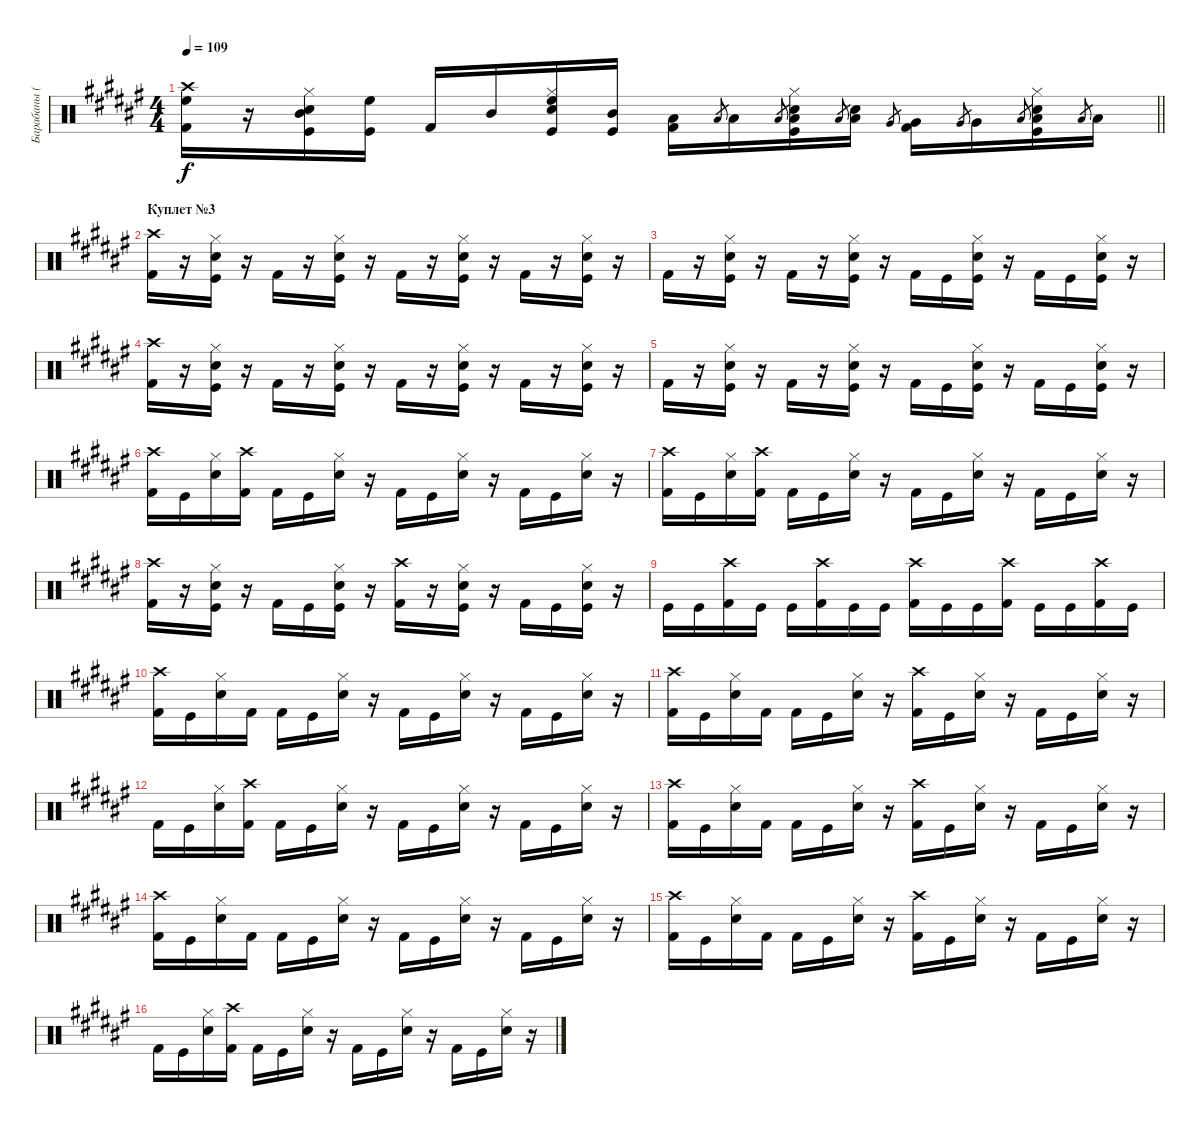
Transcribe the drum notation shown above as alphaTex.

\track ("Барабаны (Н.Лысов)" "Барабаны (") {instrument percussion}
\staff {score}
\articulation defaults
\ts (4 4)
\tempo 109
\clef neutral
\barLineRight lightlight
\ks f#
("Crash high (hit)" "High Floor Tom (hit)" "Kick (hit) 2").16{dy f} r.16 ("Hi-Hat (closed)" "Snare (hit) 2" "Mid Tom (hit)" "Kick (hit)").16 ("High Floor Tom (hit)" "Kick (hit)").16 "Kick (hit) 2".16 "Mid Tom (hit)".16 ("Hi-Hat (closed)" "Snare (hit) 2" "High Floor Tom (hit)" "Kick (hit)").16 ("Mid Tom (hit)" "Kick (hit)").16 ("Low Tom (hit)" "Kick (hit) 2").16 "Low Tom (hit)".8{gr} "Low Tom (hit)".16 "Low Tom (hit)".8{gr} ("Hi-Hat (closed)" "Snare (hit) 2" "Low Tom (hit)" "Kick (hit)").16 "Low Tom (hit)".8{gr} ("Snare (hit) 2" "Low Tom (hit)").16 "Very Low Tom (hit)".8{gr} ("Very Low Tom (hit)" "Kick (hit) 2").16 "Very Low Tom (hit)".8{gr} "Very Low Tom (hit)".16 "Low Floor Tom (hit)".8{gr} ("Hi-Hat (closed)" "Snare (hit) 2" "Low Floor Tom (hit)" "Kick (hit)").16 "Low Floor Tom (hit)".8{gr} "Low Floor Tom (hit)".16 |
\section ("" "Куплет №3")
("Crash high (hit)" "Kick (hit) 2").16 r.16 ("Hi-Hat (closed)" "Snare (hit) 2" "Kick (hit)").16 r.16 "Kick (hit) 2".16 r.16 ("Hi-Hat (closed)" "Snare (hit) 2" "Kick (hit)").16 r.16 "Kick (hit) 2".16 r.16 ("Hi-Hat (closed)" "Snare (hit) 2" "Kick (hit)").16 r.16 "Kick (hit) 2".16 r.16 ("Hi-Hat (closed)" "Snare (hit) 2" "Kick (hit)").16 r.16 |
"Kick (hit) 2".16 r.16 ("Hi-Hat (closed)" "Snare (hit) 2" "Kick (hit)").16 r.16 "Kick (hit) 2".16 r.16 ("Hi-Hat (closed)" "Snare (hit) 2" "Kick (hit)").16 r.16 "Kick (hit) 2".16 "Kick (hit)".16 ("Hi-Hat (closed)" "Snare (hit) 2" "Kick (hit)").16 r.16 "Kick (hit) 2".16 "Kick (hit)".16 ("Hi-Hat (closed)" "Snare (hit) 2" "Kick (hit)").16 r.16 |
("Crash high (hit)" "Kick (hit) 2").16 r.16 ("Hi-Hat (closed)" "Snare (hit) 2" "Kick (hit)").16 r.16 "Kick (hit) 2".16 r.16 ("Hi-Hat (closed)" "Snare (hit) 2" "Kick (hit)").16 r.16 "Kick (hit) 2".16 r.16 ("Hi-Hat (closed)" "Snare (hit) 2" "Kick (hit)").16 r.16 "Kick (hit) 2".16 r.16 ("Hi-Hat (closed)" "Snare (hit) 2" "Kick (hit)").16 r.16 |
"Kick (hit) 2".16 r.16 ("Hi-Hat (closed)" "Snare (hit) 2" "Kick (hit)").16 r.16 "Kick (hit) 2".16 r.16 ("Hi-Hat (closed)" "Snare (hit) 2" "Kick (hit)").16 r.16 "Kick (hit) 2".16 "Kick (hit)".16 ("Hi-Hat (closed)" "Snare (hit) 2" "Kick (hit)").16 r.16 "Kick (hit) 2".16 "Kick (hit)".16 ("Hi-Hat (closed)" "Snare (hit) 2" "Kick (hit)").16 r.16 |
("Crash high (hit)" "Kick (hit) 2").16 "Kick (hit)".16 ("Hi-Hat (closed)" "Snare (hit) 2").16 ("Crash high (hit)" "Kick (hit) 2").16 "Kick (hit) 2".16 "Kick (hit)".16 ("Hi-Hat (closed)" "Snare (hit) 2").16 r.16 "Kick (hit) 2".16 "Kick (hit)".16 ("Hi-Hat (closed)" "Snare (hit) 2").16 r.16 "Kick (hit) 2".16 "Kick (hit)".16 ("Hi-Hat (closed)" "Snare (hit) 2").16 r.16 |
("Crash high (hit)" "Kick (hit) 2").16 "Kick (hit)".16 ("Hi-Hat (closed)" "Snare (hit) 2").16 ("Crash high (hit)" "Kick (hit) 2").16 "Kick (hit) 2".16 "Kick (hit)".16 ("Hi-Hat (closed)" "Snare (hit) 2").16 r.16 "Kick (hit) 2".16 "Kick (hit)".16 ("Hi-Hat (closed)" "Snare (hit) 2").16 r.16 "Kick (hit) 2".16 "Kick (hit)".16 ("Hi-Hat (closed)" "Snare (hit) 2").16 r.16 |
("Crash high (hit)" "Kick (hit) 2").16 r.16 ("Hi-Hat (closed)" "Snare (hit) 2" "Kick (hit)").16 r.16 "Kick (hit) 2".16 "Kick (hit)".16 ("Hi-Hat (closed)" "Snare (hit) 2" "Kick (hit)").16 r.16 ("Crash high (hit)" "Kick (hit) 2").16 r.16 ("Hi-Hat (closed)" "Snare (hit) 2" "Kick (hit)").16 r.16 "Kick (hit) 2".16 "Kick (hit)".16 ("Hi-Hat (closed)" "Snare (hit) 2" "Kick (hit)").16 r.16 |
"Kick (hit)".16 "Kick (hit)".16 ("Crash high (hit)" "Kick (hit) 2").16 "Kick (hit)".16 "Kick (hit)".16 ("Crash high (hit)" "Kick (hit) 2").16 "Kick (hit)".16 "Kick (hit)".16 ("Crash high (hit)" "Kick (hit) 2").16 "Kick (hit)".16 "Kick (hit)".16 ("Crash high (hit)" "Kick (hit) 2").16 "Kick (hit)".16 "Kick (hit)".16 ("Crash high (hit)" "Kick (hit) 2").16 "Kick (hit)".16 |
("Crash high (hit)" "Kick (hit) 2").16 "Kick (hit)".16 ("Hi-Hat (closed)" "Snare (hit) 2").16 "Kick (hit) 2".16 "Kick (hit) 2".16 "Kick (hit)".16 ("Hi-Hat (closed)" "Snare (hit) 2").16 r.16 "Kick (hit) 2".16 "Kick (hit)".16 ("Hi-Hat (closed)" "Snare (hit) 2").16 r.16 "Kick (hit) 2".16 "Kick (hit)".16 ("Hi-Hat (closed)" "Snare (hit) 2").16 r.16 |
("Crash high (hit)" "Kick (hit) 2").16 "Kick (hit)".16 ("Hi-Hat (closed)" "Snare (hit) 2").16 "Kick (hit) 2".16 "Kick (hit) 2".16 "Kick (hit)".16 ("Hi-Hat (closed)" "Snare (hit) 2").16 r.16 ("Crash high (hit)" "Kick (hit) 2").16 "Kick (hit)".16 ("Hi-Hat (closed)" "Snare (hit) 2").16 r.16 "Kick (hit) 2".16 "Kick (hit)".16 ("Hi-Hat (closed)" "Snare (hit) 2").16 r.16 |
"Kick (hit) 2".16 "Kick (hit)".16 ("Hi-Hat (closed)" "Snare (hit) 2").16 ("Crash high (hit)" "Kick (hit) 2").16 "Kick (hit) 2".16 "Kick (hit)".16 ("Hi-Hat (closed)" "Snare (hit) 2").16 r.16 "Kick (hit) 2".16 "Kick (hit)".16 ("Hi-Hat (closed)" "Snare (hit) 2").16 r.16 "Kick (hit) 2".16 "Kick (hit)".16 ("Hi-Hat (closed)" "Snare (hit) 2").16 r.16 |
("Crash high (hit)" "Kick (hit) 2").16 "Kick (hit)".16 ("Hi-Hat (closed)" "Snare (hit) 2").16 "Kick (hit) 2".16 "Kick (hit) 2".16 "Kick (hit)".16 ("Hi-Hat (closed)" "Snare (hit) 2").16 r.16 ("Crash high (hit)" "Kick (hit) 2").16 "Kick (hit)".16 ("Hi-Hat (closed)" "Snare (hit) 2").16 r.16 "Kick (hit) 2".16 "Kick (hit)".16 ("Hi-Hat (closed)" "Snare (hit) 2").16 r.16 |
("Crash high (hit)" "Kick (hit) 2").16 "Kick (hit)".16 ("Hi-Hat (closed)" "Snare (hit) 2").16 "Kick (hit) 2".16 "Kick (hit) 2".16 "Kick (hit)".16 ("Hi-Hat (closed)" "Snare (hit) 2").16 r.16 "Kick (hit) 2".16 "Kick (hit)".16 ("Hi-Hat (closed)" "Snare (hit) 2").16 r.16 "Kick (hit) 2".16 "Kick (hit)".16 ("Hi-Hat (closed)" "Snare (hit) 2").16 r.16 |
("Crash high (hit)" "Kick (hit) 2").16 "Kick (hit)".16 ("Hi-Hat (closed)" "Snare (hit) 2").16 "Kick (hit) 2".16 "Kick (hit) 2".16 "Kick (hit)".16 ("Hi-Hat (closed)" "Snare (hit) 2").16 r.16 ("Crash high (hit)" "Kick (hit) 2").16 "Kick (hit)".16 ("Hi-Hat (closed)" "Snare (hit) 2").16 r.16 "Kick (hit) 2".16 "Kick (hit)".16 ("Hi-Hat (closed)" "Snare (hit) 2").16 r.16 |
"Kick (hit) 2".16 "Kick (hit)".16 ("Hi-Hat (closed)" "Snare (hit) 2").16 ("Crash high (hit)" "Kick (hit) 2").16 "Kick (hit) 2".16 "Kick (hit)".16 ("Hi-Hat (closed)" "Snare (hit) 2").16 r.16 "Kick (hit) 2".16 "Kick (hit)".16 ("Hi-Hat (closed)" "Snare (hit) 2").16 r.16 "Kick (hit) 2".16 "Kick (hit)".16 ("Hi-Hat (closed)" "Snare (hit) 2").16 r.16
